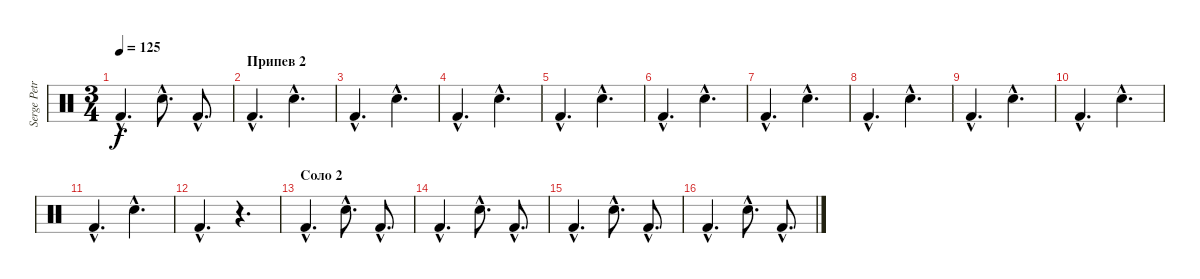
\track ("Serge Petrone" "Serge Petr") {instrument percussion}
\staff {score}
\articulation defaults
\ts (3 4)
\tempo 125
\clef neutral
\ks c "Kick (hit) 2"{hac}.4{d dy f} "Snare (hit) 2"{hac}.8{d} "Kick (hit) 2"{hac}.8{d}
|
\section ("" "Припев 2")
"Kick (hit) 2"{hac}.4{d} "Snare (hit) 2"{hac}.4{d} |
"Kick (hit) 2"{hac}.4{d} "Snare (hit) 2"{hac}.4{d} |
"Kick (hit) 2"{hac}.4{d} "Snare (hit) 2"{hac}.4{d} |
"Kick (hit) 2"{hac}.4{d} "Snare (hit) 2"{hac}.4{d} |
"Kick (hit) 2"{hac}.4{d} "Snare (hit) 2"{hac}.4{d} |
"Kick (hit) 2"{hac}.4{d} "Snare (hit) 2"{hac}.4{d} |
"Kick (hit) 2"{hac}.4{d} "Snare (hit) 2"{hac}.4{d} |
"Kick (hit) 2"{hac}.4{d} "Snare (hit) 2"{hac}.4{d} |
"Kick (hit) 2"{hac}.4{d} "Snare (hit) 2"{hac}.4{d} |
"Kick (hit) 2"{hac}.4{d} "Snare (hit) 2"{hac}.4{d} |
"Kick (hit) 2"{hac}.4{d} r.4{d} |
\section ("" "Соло 2")
"Kick (hit) 2"{hac}.4{d} "Snare (hit) 2"{hac}.8{d} "Kick (hit) 2"{hac}.8{d} |
"Kick (hit) 2"{hac}.4{d} "Snare (hit) 2"{hac}.8{d} "Kick (hit) 2"{hac}.8{d} |
"Kick (hit) 2"{hac}.4{d} "Snare (hit) 2"{hac}.8{d} "Kick (hit) 2"{hac}.8{d} |
"Kick (hit) 2"{hac}.4{d} "Snare (hit) 2"{hac}.8{d} "Kick (hit) 2"{hac}.8{d}
